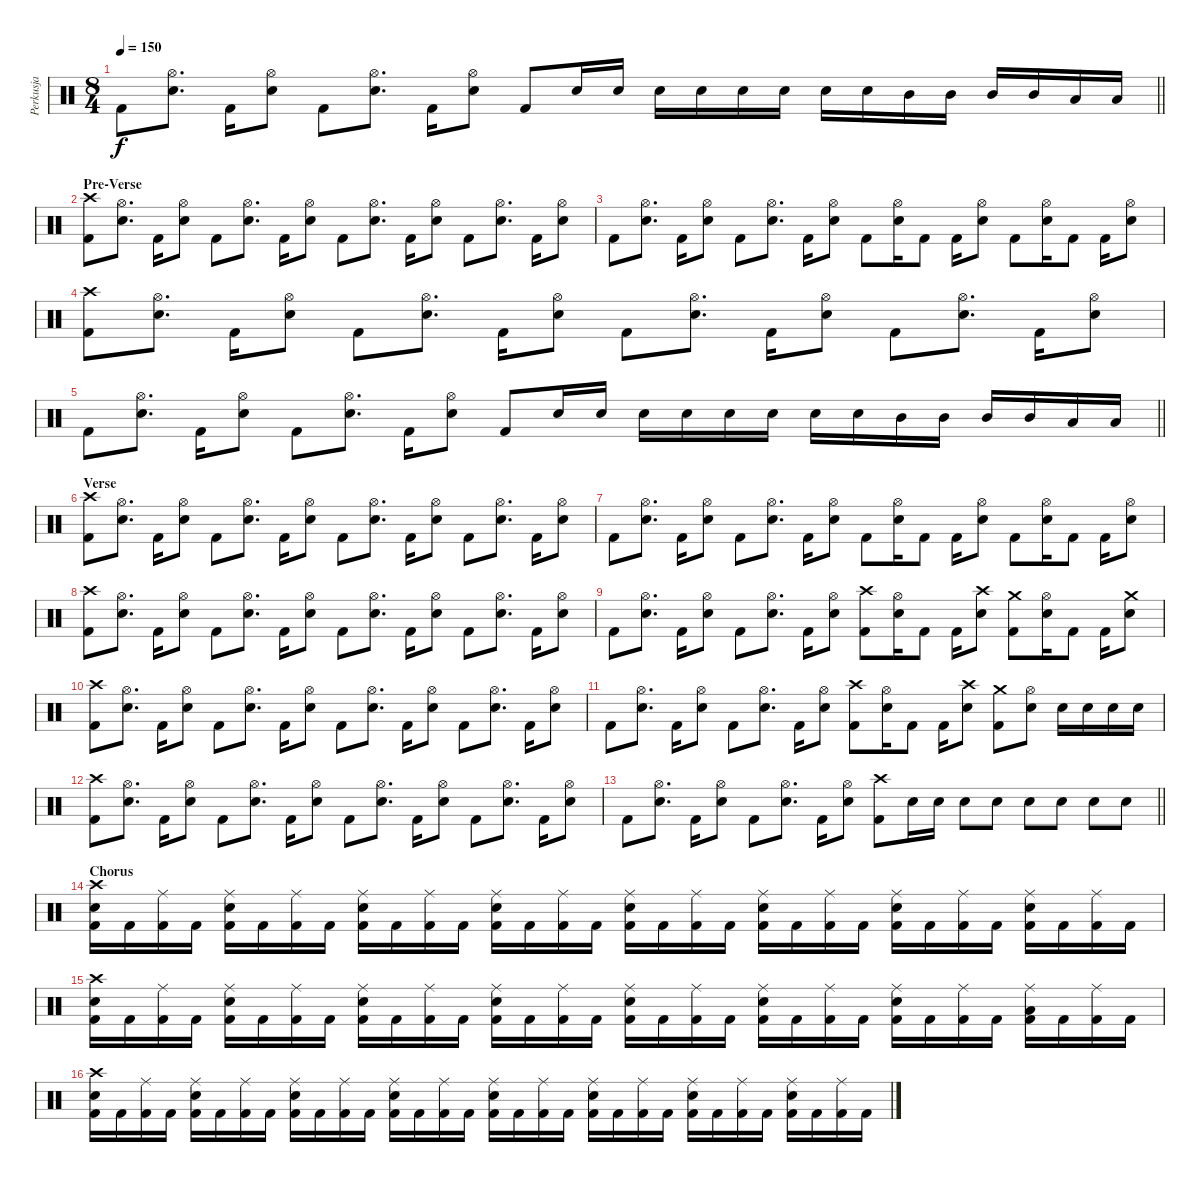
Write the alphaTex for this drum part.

\track ("Perkusja" "Perkusja") {instrument percussion}
\staff {score}
\articulation defaults
\ts (8 4)
\tempo 150
\clef neutral
\barLineRight lightlight
\ks c "Kick (hit) 2".8{dy f}
("Hi-Hat (open)" "Snare (hit) 2").8{d} "Kick (hit) 2".16 ("Hi-Hat (open)" "Snare (hit) 2").8 "Kick (hit) 2".8 ("Hi-Hat (open)" "Snare (hit) 2").8{d} "Kick (hit) 2".16 ("Hi-Hat (open)" "Snare (hit) 2").8 "Kick (hit) 2".8 "Snare (hit) 2".16 "Snare (hit) 2".16 "Snare (hit) 2".16 "Snare (hit) 2".16 "Snare (hit) 2".16 "Snare (hit) 2".16 "Snare (hit) 2".16 "Snare (hit) 2".16 "Mid Tom (hit)".16 "Mid Tom (hit)".16 "Mid Tom (hit)".16 "Mid Tom (hit)".16 "Low Tom (hit)".16 "Low Tom (hit)".16 |
\section ("" "Pre-Verse")
("Crash high (hit)" "Kick (hit) 2").8 ("Hi-Hat (open)" "Snare (hit) 2").8{d} "Kick (hit) 2".16 ("Hi-Hat (open)" "Snare (hit) 2").8 "Kick (hit) 2".8 ("Hi-Hat (open)" "Snare (hit) 2").8{d} "Kick (hit) 2".16 ("Hi-Hat (open)" "Snare (hit) 2").8 "Kick (hit) 2".8 ("Hi-Hat (open)" "Snare (hit) 2").8{d} "Kick (hit) 2".16 ("Hi-Hat (open)" "Snare (hit) 2").8 "Kick (hit) 2".8 ("Hi-Hat (open)" "Snare (hit) 2").8{d} "Kick (hit) 2".16 ("Hi-Hat (open)" "Snare (hit) 2").8 |
"Kick (hit) 2".8 ("Hi-Hat (open)" "Snare (hit) 2").8{d} "Kick (hit) 2".16 ("Hi-Hat (open)" "Snare (hit) 2").8 "Kick (hit) 2".8 ("Hi-Hat (open)" "Snare (hit) 2").8{d} "Kick (hit) 2".16 ("Hi-Hat (open)" "Snare (hit) 2").8 "Kick (hit) 2".8 ("Hi-Hat (open)" "Snare (hit) 2").16 "Kick (hit) 2".8 "Kick (hit) 2".16 ("Hi-Hat (open)" "Snare (hit) 2").8 "Kick (hit) 2".8 ("Hi-Hat (open)" "Snare (hit) 2").16 "Kick (hit) 2".8 "Kick (hit) 2".16 ("Hi-Hat (open)" "Snare (hit) 2").8 |
("Crash high (hit)" "Kick (hit) 2").8 ("Hi-Hat (open)" "Snare (hit) 2").8{d} "Kick (hit) 2".16 ("Hi-Hat (open)" "Snare (hit) 2").8 "Kick (hit) 2".8 ("Hi-Hat (open)" "Snare (hit) 2").8{d} "Kick (hit) 2".16 ("Hi-Hat (open)" "Snare (hit) 2").8 "Kick (hit) 2".8 ("Hi-Hat (open)" "Snare (hit) 2").8{d} "Kick (hit) 2".16 ("Hi-Hat (open)" "Snare (hit) 2").8 "Kick (hit) 2".8 ("Hi-Hat (open)" "Snare (hit) 2").8{d} "Kick (hit) 2".16 ("Hi-Hat (open)" "Snare (hit) 2").8 |
\barLineRight lightlight "Kick (hit) 2".8
("Hi-Hat (open)" "Snare (hit) 2").8{d} "Kick (hit) 2".16 ("Hi-Hat (open)" "Snare (hit) 2").8 "Kick (hit) 2".8 ("Hi-Hat (open)" "Snare (hit) 2").8{d} "Kick (hit) 2".16 ("Hi-Hat (open)" "Snare (hit) 2").8 "Kick (hit) 2".8 "Snare (hit) 2".16 "Snare (hit) 2".16 "Snare (hit) 2".16 "Snare (hit) 2".16 "Snare (hit) 2".16 "Snare (hit) 2".16 "Snare (hit) 2".16 "Snare (hit) 2".16 "Mid Tom (hit)".16 "Mid Tom (hit)".16 "Mid Tom (hit)".16 "Mid Tom (hit)".16 "Low Tom (hit)".16 "Low Tom (hit)".16 |
\section ("" "Verse")
("Crash high (hit)" "Kick (hit) 2").8 ("Hi-Hat (open)" "Snare (hit) 2").8{d} "Kick (hit) 2".16 ("Hi-Hat (open)" "Snare (hit) 2").8 "Kick (hit) 2".8 ("Hi-Hat (open)" "Snare (hit) 2").8{d} "Kick (hit) 2".16 ("Hi-Hat (open)" "Snare (hit) 2").8 "Kick (hit) 2".8 ("Hi-Hat (open)" "Snare (hit) 2").8{d} "Kick (hit) 2".16 ("Hi-Hat (open)" "Snare (hit) 2").8 "Kick (hit) 2".8 ("Hi-Hat (open)" "Snare (hit) 2").8{d} "Kick (hit) 2".16 ("Hi-Hat (open)" "Snare (hit) 2").8 |
"Kick (hit) 2".8 ("Hi-Hat (open)" "Snare (hit) 2").8{d} "Kick (hit) 2".16 ("Hi-Hat (open)" "Snare (hit) 2").8 "Kick (hit) 2".8 ("Hi-Hat (open)" "Snare (hit) 2").8{d} "Kick (hit) 2".16 ("Hi-Hat (open)" "Snare (hit) 2").8 "Kick (hit) 2".8 ("Hi-Hat (open)" "Snare (hit) 2").16 "Kick (hit) 2".8 "Kick (hit) 2".16 ("Hi-Hat (open)" "Snare (hit) 2").8 "Kick (hit) 2".8 ("Hi-Hat (open)" "Snare (hit) 2").16 "Kick (hit) 2".8 "Kick (hit) 2".16 ("Hi-Hat (open)" "Snare (hit) 2").8 |
("Crash high (hit)" "Kick (hit) 2").8 ("Hi-Hat (open)" "Snare (hit) 2").8{d} "Kick (hit) 2".16 ("Hi-Hat (open)" "Snare (hit) 2").8 "Kick (hit) 2".8 ("Hi-Hat (open)" "Snare (hit) 2").8{d} "Kick (hit) 2".16 ("Hi-Hat (open)" "Snare (hit) 2").8 "Kick (hit) 2".8 ("Hi-Hat (open)" "Snare (hit) 2").8{d} "Kick (hit) 2".16 ("Hi-Hat (open)" "Snare (hit) 2").8 "Kick (hit) 2".8 ("Hi-Hat (open)" "Snare (hit) 2").8{d} "Kick (hit) 2".16 ("Hi-Hat (open)" "Snare (hit) 2").8 |
"Kick (hit) 2".8 ("Hi-Hat (open)" "Snare (hit) 2").8{d} "Kick (hit) 2".16 ("Hi-Hat (open)" "Snare (hit) 2").8 "Kick (hit) 2".8 ("Hi-Hat (open)" "Snare (hit) 2").8{d} "Kick (hit) 2".16 ("Hi-Hat (open)" "Snare (hit) 2").8 ("Crash high (hit)" "Kick (hit) 2").8 ("Hi-Hat (open)" "Snare (hit) 2").16 "Kick (hit) 2".8 "Kick (hit) 2".16 ("Crash high (hit)" "Snare (hit) 2").8 ("Crash medium (hit)" "Kick (hit) 2").8 ("Hi-Hat (open)" "Snare (hit) 2").16 "Kick (hit) 2".8 "Kick (hit) 2".16 ("Crash medium (hit)" "Snare (hit) 2").8 |
("Crash high (hit)" "Kick (hit) 2").8 ("Hi-Hat (open)" "Snare (hit) 2").8{d} "Kick (hit) 2".16 ("Hi-Hat (open)" "Snare (hit) 2").8 "Kick (hit) 2".8 ("Hi-Hat (open)" "Snare (hit) 2").8{d} "Kick (hit) 2".16 ("Hi-Hat (open)" "Snare (hit) 2").8 "Kick (hit) 2".8 ("Hi-Hat (open)" "Snare (hit) 2").8{d} "Kick (hit) 2".16 ("Hi-Hat (open)" "Snare (hit) 2").8 "Kick (hit) 2".8 ("Hi-Hat (open)" "Snare (hit) 2").8{d} "Kick (hit) 2".16 ("Hi-Hat (open)" "Snare (hit) 2").8 |
"Kick (hit) 2".8 ("Hi-Hat (open)" "Snare (hit) 2").8{d} "Kick (hit) 2".16 ("Hi-Hat (open)" "Snare (hit) 2").8 "Kick (hit) 2".8 ("Hi-Hat (open)" "Snare (hit) 2").8{d} "Kick (hit) 2".16 ("Hi-Hat (open)" "Snare (hit) 2").8 ("Crash high (hit)" "Kick (hit) 2").8 ("Hi-Hat (open)" "Snare (hit) 2").16 "Kick (hit) 2".8 "Kick (hit) 2".16 ("Crash high (hit)" "Snare (hit) 2").8 ("Crash medium (hit)" "Kick (hit) 2").8 ("Hi-Hat (open)" "Snare (hit) 2").8 "Snare (hit) 2".16 "Snare (hit) 2".16 "Snare (hit) 2".16 "Snare (hit) 2".16 |
("Crash high (hit)" "Kick (hit) 2").8 ("Hi-Hat (open)" "Snare (hit) 2").8{d} "Kick (hit) 2".16 ("Hi-Hat (open)" "Snare (hit) 2").8 "Kick (hit) 2".8 ("Hi-Hat (open)" "Snare (hit) 2").8{d} "Kick (hit) 2".16 ("Hi-Hat (open)" "Snare (hit) 2").8 "Kick (hit) 2".8 ("Hi-Hat (open)" "Snare (hit) 2").8{d} "Kick (hit) 2".16 ("Hi-Hat (open)" "Snare (hit) 2").8 "Kick (hit) 2".8 ("Hi-Hat (open)" "Snare (hit) 2").8{d} "Kick (hit) 2".16 ("Hi-Hat (open)" "Snare (hit) 2").8 |
\barLineRight lightlight "Kick (hit) 2".8
("Hi-Hat (open)" "Snare (hit) 2").8{d} "Kick (hit) 2".16 ("Hi-Hat (open)" "Snare (hit) 2").8 "Kick (hit) 2".8 ("Hi-Hat (open)" "Snare (hit) 2").8{d} "Kick (hit) 2".16 ("Hi-Hat (open)" "Snare (hit) 2").8 ("Crash high (hit)" "Kick (hit) 2").8 "Snare (hit) 2".16 "Snare (hit) 2".16 "Snare (hit) 2".8 "Snare (hit) 2".8 "Snare (hit) 2".8 "Snare (hit) 2".8 "Snare (hit) 2".8 "Snare (hit) 2".8 |
\section ("" "Chorus")
("Crash high (hit)" "Snare (hit) 2" "Kick (hit) 2").16 "Kick (hit) 2".16 ("Ride (middle)" "Kick (hit) 2").16 "Kick (hit) 2".16 ("Ride (middle)" "Snare (hit) 2" "Kick (hit) 2").16 "Kick (hit) 2".16 ("Ride (middle)" "Kick (hit) 2").16 "Kick (hit) 2".16 ("Ride (middle)" "Snare (hit) 2" "Kick (hit) 2").16 "Kick (hit) 2".16 ("Ride (middle)" "Kick (hit) 2").16 "Kick (hit) 2".16 ("Ride (middle)" "Snare (hit) 2" "Kick (hit) 2").16 "Kick (hit) 2".16 ("Ride (middle)" "Kick (hit) 2").16 "Kick (hit) 2".16 ("Ride (middle)" "Snare (hit) 2" "Kick (hit) 2").16 "Kick (hit) 2".16 ("Ride (middle)" "Kick (hit) 2").16 "Kick (hit) 2".16 ("Ride (middle)" "Snare (hit) 2" "Kick (hit) 2").16 "Kick (hit) 2".16 ("Ride (middle)" "Kick (hit) 2").16 "Kick (hit) 2".16 ("Ride (middle)" "Snare (hit) 2" "Kick (hit) 2").16 "Kick (hit) 2".16 ("Ride (middle)" "Kick (hit) 2").16 "Kick (hit) 2".16 ("Ride (middle)" "Snare (hit) 2" "Kick (hit) 2").16 "Kick (hit) 2".16 ("Ride (middle)" "Kick (hit) 2").16 "Kick (hit) 2".16 |
("Crash high (hit)" "Snare (hit) 2" "Kick (hit) 2").16 "Kick (hit) 2".16 ("Ride (middle)" "Kick (hit) 2").16 "Kick (hit) 2".16 ("Ride (middle)" "Snare (hit) 2" "Kick (hit) 2").16 "Kick (hit) 2".16 ("Ride (middle)" "Kick (hit) 2").16 "Kick (hit) 2".16 ("Ride (middle)" "Snare (hit) 2" "Kick (hit) 2").16 "Kick (hit) 2".16 ("Ride (middle)" "Kick (hit) 2").16 "Kick (hit) 2".16 ("Ride (middle)" "Snare (hit) 2" "Kick (hit) 2").16 "Kick (hit) 2".16 ("Ride (middle)" "Kick (hit) 2").16 "Kick (hit) 2".16 ("Ride (middle)" "Snare (hit) 2" "Kick (hit) 2").16 "Kick (hit) 2".16 ("Ride (middle)" "Kick (hit) 2").16 "Kick (hit) 2".16 ("Ride (middle)" "Snare (hit) 2" "Kick (hit) 2").16 "Kick (hit) 2".16 ("Ride (middle)" "Kick (hit) 2").16 "Kick (hit) 2".16 ("Ride (middle)" "Snare (hit) 2" "Kick (hit) 2").16 "Kick (hit) 2".16 ("Ride (middle)" "Kick (hit) 2").16 "Kick (hit) 2".16 ("Ride (middle)" "Low Floor Tom (hit)" "Kick (hit) 2").16 "Kick (hit) 2".16 ("Ride (middle)" "Kick (hit) 2").16 "Kick (hit) 2".16 |
("Crash high (hit)" "Snare (hit) 2" "Kick (hit) 2").16 "Kick (hit) 2".16 ("Ride (middle)" "Kick (hit) 2").16 "Kick (hit) 2".16 ("Ride (middle)" "Snare (hit) 2" "Kick (hit) 2").16 "Kick (hit) 2".16 ("Ride (middle)" "Kick (hit) 2").16 "Kick (hit) 2".16 ("Ride (middle)" "Snare (hit) 2" "Kick (hit) 2").16 "Kick (hit) 2".16 ("Ride (middle)" "Kick (hit) 2").16 "Kick (hit) 2".16 ("Ride (middle)" "Snare (hit) 2" "Kick (hit) 2").16 "Kick (hit) 2".16 ("Ride (middle)" "Kick (hit) 2").16 "Kick (hit) 2".16 ("Ride (middle)" "Snare (hit) 2" "Kick (hit) 2").16 "Kick (hit) 2".16 ("Ride (middle)" "Kick (hit) 2").16 "Kick (hit) 2".16 ("Ride (middle)" "Snare (hit) 2" "Kick (hit) 2").16 "Kick (hit) 2".16 ("Ride (middle)" "Kick (hit) 2").16 "Kick (hit) 2".16 ("Ride (middle)" "Snare (hit) 2" "Kick (hit) 2").16 "Kick (hit) 2".16 ("Ride (middle)" "Kick (hit) 2").16 "Kick (hit) 2".16 ("Ride (middle)" "Snare (hit) 2" "Kick (hit) 2").16 "Kick (hit) 2".16 ("Ride (middle)" "Kick (hit) 2").16 "Kick (hit) 2".16
